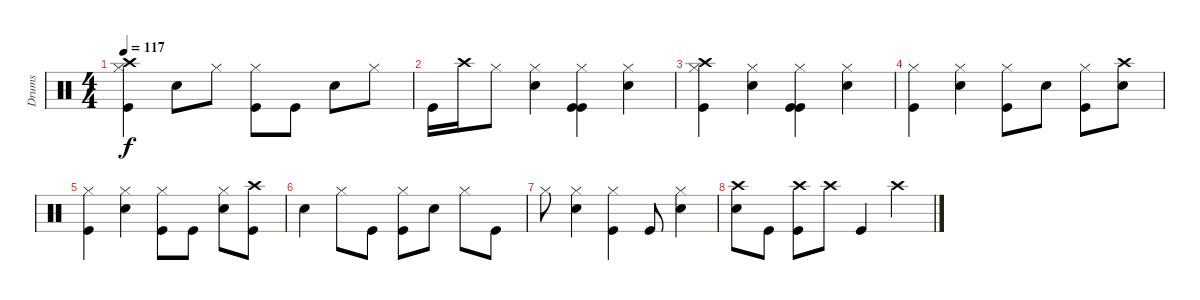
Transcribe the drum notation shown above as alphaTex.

\track ("Drums" "Drums") {instrument percussion}
\staff {score}
\articulation defaults
\ts (4 4)
\tempo 117
\clef neutral
\ks c
("Crash high (hit)" "Kick (hit)" "Hi-Hat (closed)").4{dy f} "Electric Snare (hit)".8 "Hi-Hat (closed)".8 ("Kick (hit)" "Hi-Hat (closed)").8 "Kick (hit)".8 "Electric Snare (hit)".8 "Hi-Hat (closed)".8 |
"Kick (hit)".16 "Crash high (hit)".16 "Hi-Hat (closed)".8 ("Electric Snare (hit)" "Hi-Hat (closed)").4 ("Hi-Hat (closed)" "Kick (hit)" "Kick (hit)").4 ("Hi-Hat (closed)" "Electric Snare (hit)").4 |
("Kick (hit)" "Hi-Hat (closed)" "Crash high (hit)").4 ("Hi-Hat (closed)" "Electric Snare (hit)").4 ("Hi-Hat (closed)" "Kick (hit)" "Kick (hit)").4 ("Hi-Hat (closed)" "Electric Snare (hit)").4 |
("Hi-Hat (closed)" "Kick (hit)").4 ("Hi-Hat (closed)" "Electric Snare (hit)").4 ("Hi-Hat (closed)" "Kick (hit)").8 "Electric Snare (hit)".8 ("Hi-Hat (closed)" "Kick (hit)").8 ("Electric Snare (hit)" "Crash high (hit)").8 |
("Hi-Hat (closed)" "Kick (hit)").4 ("Hi-Hat (closed)" "Electric Snare (hit)").4 ("Kick (hit)" "Hi-Hat (closed)").8 "Kick (hit)".8 ("Hi-Hat (closed)" "Electric Snare (hit)").8 ("Kick (hit)" "Crash high (hit)").8 |
"Electric Snare (hit)".4 "Hi-Hat (closed)".8 "Kick (hit)".8 ("Hi-Hat (closed)" "Kick (hit)").8 "Electric Snare (hit)".8 "Hi-Hat (closed)".8 "Kick (hit)".8 |
"Hi-Hat (closed)".8 ("Electric Snare (hit)" "Hi-Hat (closed)").4 ("Hi-Hat (closed)" "Kick (hit)").4 "Kick (hit)".8 ("Hi-Hat (closed)" "Electric Snare (hit)").4 |
("Crash high (hit)" "Electric Snare (hit)").8 "Kick (hit)".8 ("Crash high (hit)" "Kick (hit)").8 "Crash high (hit)".8 "Kick (hit)".4 "Crash high (hit)".4
